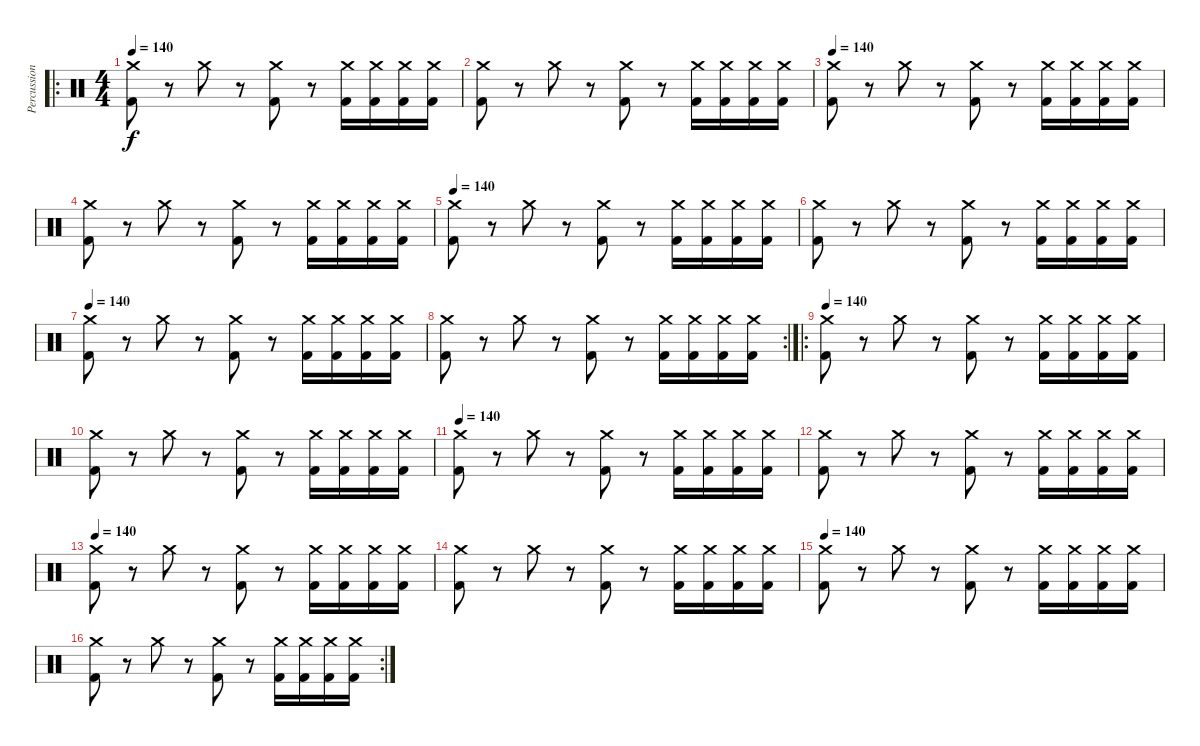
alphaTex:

\track ("Percussions" "Percussion") {instrument percussion}
\staff {score}
\articulation defaults
\ro
\ts (4 4)
\tempo 140
\clef neutral
\ks c
("Kick (hit) 2" "Crash medium (hit)").8{dy f} r.8 "Crash medium (hit)".8 r.8 ("Kick (hit) 2" "Crash medium (hit)").8 r.8 ("Kick (hit) 2" "Crash medium (hit)").16 ("Kick (hit) 2" "Crash medium (hit)").16 ("Kick (hit) 2" "Crash medium (hit)").16 ("Kick (hit) 2" "Crash medium (hit)").16 |
("Kick (hit) 2" "Crash medium (hit)").8 r.8 "Crash medium (hit)".8 r.8 ("Kick (hit) 2" "Crash medium (hit)").8 r.8 ("Kick (hit) 2" "Crash medium (hit)").16 ("Kick (hit) 2" "Crash medium (hit)").16 ("Kick (hit) 2" "Crash medium (hit)").16 ("Kick (hit) 2" "Crash medium (hit)").16 |
\tempo 140
("Kick (hit) 2" "Crash medium (hit)").8 r.8 "Crash medium (hit)".8 r.8 ("Kick (hit) 2" "Crash medium (hit)").8 r.8 ("Kick (hit) 2" "Crash medium (hit)").16 ("Kick (hit) 2" "Crash medium (hit)").16 ("Kick (hit) 2" "Crash medium (hit)").16 ("Kick (hit) 2" "Crash medium (hit)").16 |
("Kick (hit) 2" "Crash medium (hit)").8 r.8 "Crash medium (hit)".8 r.8 ("Kick (hit) 2" "Crash medium (hit)").8 r.8 ("Kick (hit) 2" "Crash medium (hit)").16 ("Kick (hit) 2" "Crash medium (hit)").16 ("Kick (hit) 2" "Crash medium (hit)").16 ("Kick (hit) 2" "Crash medium (hit)").16 |
\tempo 140
("Kick (hit) 2" "Crash medium (hit)").8 r.8 "Crash medium (hit)".8 r.8 ("Kick (hit) 2" "Crash medium (hit)").8 r.8 ("Kick (hit) 2" "Crash medium (hit)").16 ("Kick (hit) 2" "Crash medium (hit)").16 ("Kick (hit) 2" "Crash medium (hit)").16 ("Kick (hit) 2" "Crash medium (hit)").16 |
("Kick (hit) 2" "Crash medium (hit)").8 r.8 "Crash medium (hit)".8 r.8 ("Kick (hit) 2" "Crash medium (hit)").8 r.8 ("Kick (hit) 2" "Crash medium (hit)").16 ("Kick (hit) 2" "Crash medium (hit)").16 ("Kick (hit) 2" "Crash medium (hit)").16 ("Kick (hit) 2" "Crash medium (hit)").16 |
\tempo 140
("Kick (hit) 2" "Crash medium (hit)").8 r.8 "Crash medium (hit)".8 r.8 ("Kick (hit) 2" "Crash medium (hit)").8 r.8 ("Kick (hit) 2" "Crash medium (hit)").16 ("Kick (hit) 2" "Crash medium (hit)").16 ("Kick (hit) 2" "Crash medium (hit)").16 ("Kick (hit) 2" "Crash medium (hit)").16 |
\rc 2
("Kick (hit) 2" "Crash medium (hit)").8 r.8 "Crash medium (hit)".8 r.8 ("Kick (hit) 2" "Crash medium (hit)").8 r.8 ("Kick (hit) 2" "Crash medium (hit)").16 ("Kick (hit) 2" "Crash medium (hit)").16 ("Kick (hit) 2" "Crash medium (hit)").16 ("Kick (hit) 2" "Crash medium (hit)").16 |
\ro
\tempo 140
("Kick (hit) 2" "Crash medium (hit)").8 r.8 "Crash medium (hit)".8 r.8 ("Kick (hit) 2" "Crash medium (hit)").8 r.8 ("Kick (hit) 2" "Crash medium (hit)").16 ("Kick (hit) 2" "Crash medium (hit)").16 ("Kick (hit) 2" "Crash medium (hit)").16 ("Kick (hit) 2" "Crash medium (hit)").16 |
("Kick (hit) 2" "Crash medium (hit)").8 r.8 "Crash medium (hit)".8 r.8 ("Kick (hit) 2" "Crash medium (hit)").8 r.8 ("Kick (hit) 2" "Crash medium (hit)").16 ("Kick (hit) 2" "Crash medium (hit)").16 ("Kick (hit) 2" "Crash medium (hit)").16 ("Kick (hit) 2" "Crash medium (hit)").16 |
\tempo 140
("Kick (hit) 2" "Crash medium (hit)").8 r.8 "Crash medium (hit)".8 r.8 ("Kick (hit) 2" "Crash medium (hit)").8 r.8 ("Kick (hit) 2" "Crash medium (hit)").16 ("Kick (hit) 2" "Crash medium (hit)").16 ("Kick (hit) 2" "Crash medium (hit)").16 ("Kick (hit) 2" "Crash medium (hit)").16 |
("Kick (hit) 2" "Crash medium (hit)").8 r.8 "Crash medium (hit)".8 r.8 ("Kick (hit) 2" "Crash medium (hit)").8 r.8 ("Kick (hit) 2" "Crash medium (hit)").16 ("Kick (hit) 2" "Crash medium (hit)").16 ("Kick (hit) 2" "Crash medium (hit)").16 ("Kick (hit) 2" "Crash medium (hit)").16 |
\tempo 140
("Kick (hit) 2" "Crash medium (hit)").8 r.8 "Crash medium (hit)".8 r.8 ("Kick (hit) 2" "Crash medium (hit)").8 r.8 ("Kick (hit) 2" "Crash medium (hit)").16 ("Kick (hit) 2" "Crash medium (hit)").16 ("Kick (hit) 2" "Crash medium (hit)").16 ("Kick (hit) 2" "Crash medium (hit)").16 |
("Kick (hit) 2" "Crash medium (hit)").8 r.8 "Crash medium (hit)".8 r.8 ("Kick (hit) 2" "Crash medium (hit)").8 r.8 ("Kick (hit) 2" "Crash medium (hit)").16 ("Kick (hit) 2" "Crash medium (hit)").16 ("Kick (hit) 2" "Crash medium (hit)").16 ("Kick (hit) 2" "Crash medium (hit)").16 |
\tempo 140
("Kick (hit) 2" "Crash medium (hit)").8 r.8 "Crash medium (hit)".8 r.8 ("Kick (hit) 2" "Crash medium (hit)").8 r.8 ("Kick (hit) 2" "Crash medium (hit)").16 ("Kick (hit) 2" "Crash medium (hit)").16 ("Kick (hit) 2" "Crash medium (hit)").16 ("Kick (hit) 2" "Crash medium (hit)").16 |
\rc 2
("Kick (hit) 2" "Crash medium (hit)").8 r.8 "Crash medium (hit)".8 r.8 ("Kick (hit) 2" "Crash medium (hit)").8 r.8 ("Kick (hit) 2" "Crash medium (hit)").16 ("Kick (hit) 2" "Crash medium (hit)").16 ("Kick (hit) 2" "Crash medium (hit)").16 ("Kick (hit) 2" "Crash medium (hit)").16
